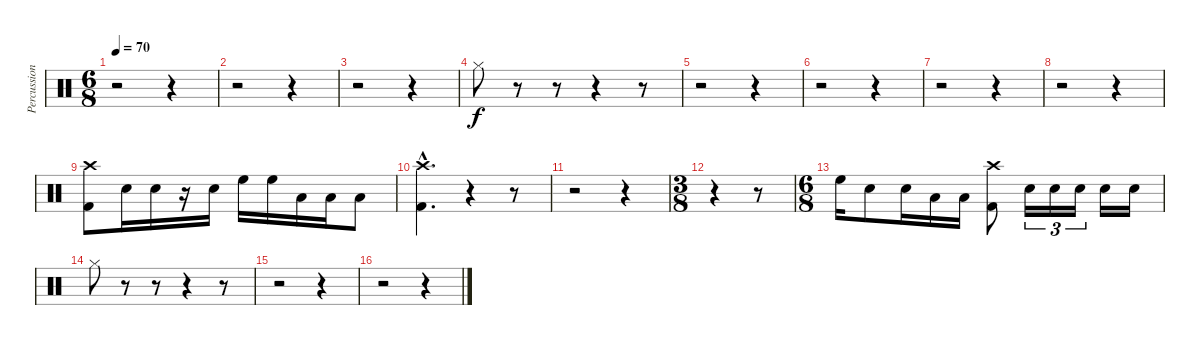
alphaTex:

\track ("Percussion" "Percussion") {instrument percussion}
\staff {score}
\articulation defaults
\ts (6 8)
\tempo 70
\clef neutral
\ks c
r.2{dy f} r.4 |
r.2 r.4 |
r.2 r.4 |
"Hi-Hat (closed)".8 r.8 r.8 r.4 r.8 |
r.2 r.4 |
r.2 r.4 |
r.2 r.4 |
r.2 r.4 |
("Crash high (hit)" "Kick (hit) 2").8 "Snare (hit) 2".16 "Snare (hit) 2".16 r.16 "Snare (hit) 2".16 "High Floor Tom (hit)".16 "High Floor Tom (hit)".16 "Low Tom (hit)".16 "Low Tom (hit)".16 "Low Tom (hit)".8 |
("Crash high (hit)"{hac} "Kick (hit) 2"{hac}).4{d} r.4 r.8 |
r.2 r.4 |
\ts (3 8)
r.4 r.8 |
\ts (6 8)
"High Floor Tom (hit)".16 "Snare (hit) 2".8 "Snare (hit) 2".16 "Low Tom (hit)".16 "Low Tom (hit)".16 ("Crash high (hit)" "Kick (hit) 2").8 "Snare (hit) 2".16{tu (3 2)} "Snare (hit) 2".16{tu (3 2)} "Snare (hit) 2".16{tu (3 2)} "Snare (hit) 2".16 "Snare (hit) 2".16 |
"Hi-Hat (closed)".8 r.8 r.8 r.4 r.8 |
r.2 r.4 |
r.2 r.4
